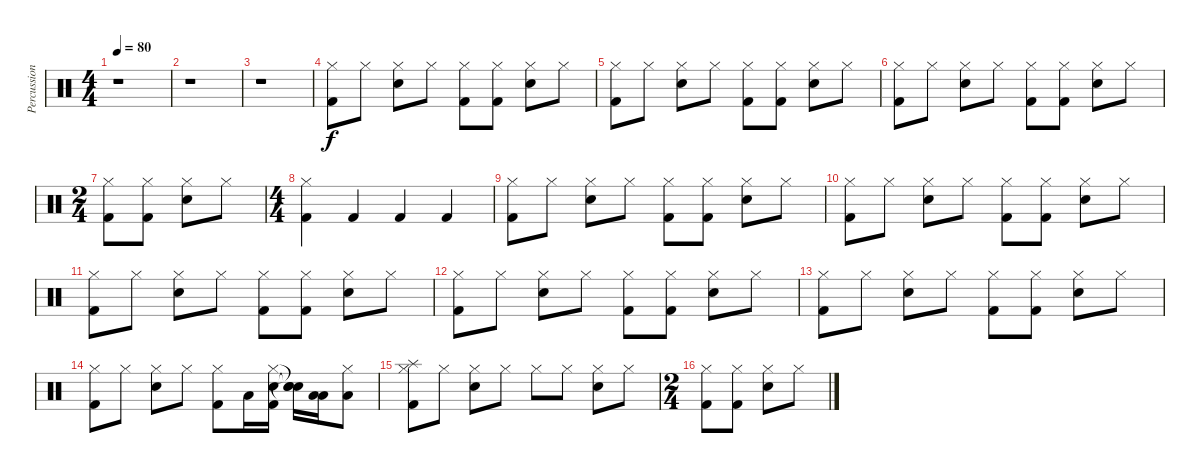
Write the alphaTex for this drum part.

\track ("Percussion" "Percussion") {instrument percussion}
\staff {score}
\articulation defaults
\ts (4 4)
\tempo 80
\clef neutral
\ks c
r.1{dy f} |
r.1 |
r.1 |
("Hi-Hat (closed)" "Kick (hit) 2").8 "Hi-Hat (closed)".8 ("Hi-Hat (closed)" "Snare (hit) 2").8 "Hi-Hat (closed)".8 ("Hi-Hat (closed)" "Kick (hit) 2").8 ("Hi-Hat (closed)" "Kick (hit) 2").8 ("Hi-Hat (closed)" "Snare (hit) 2").8 "Hi-Hat (closed)".8 |
("Hi-Hat (closed)" "Kick (hit) 2").8 "Hi-Hat (closed)".8 ("Hi-Hat (closed)" "Snare (hit) 2").8 "Hi-Hat (closed)".8 ("Hi-Hat (closed)" "Kick (hit) 2").8 ("Hi-Hat (closed)" "Kick (hit) 2").8 ("Hi-Hat (closed)" "Snare (hit) 2").8 "Hi-Hat (closed)".8 |
("Hi-Hat (closed)" "Kick (hit) 2").8 "Hi-Hat (closed)".8 ("Hi-Hat (closed)" "Snare (hit) 2").8 "Hi-Hat (closed)".8 ("Hi-Hat (closed)" "Kick (hit) 2").8 ("Hi-Hat (closed)" "Kick (hit) 2").8 ("Hi-Hat (closed)" "Snare (hit) 2").8 "Hi-Hat (closed)".8 |
\ts (2 4)
("Hi-Hat (closed)" "Kick (hit) 2").8 ("Hi-Hat (closed)" "Kick (hit) 2").8 ("Hi-Hat (closed)" "Snare (hit) 2").8 "Hi-Hat (closed)".8 |
\ts (4 4)
("Hi-Hat (closed)" "Kick (hit) 2").4 "Kick (hit) 2".4 "Kick (hit) 2".4 "Kick (hit) 2".4 |
("Hi-Hat (closed)" "Kick (hit) 2").8 "Hi-Hat (closed)".8 ("Hi-Hat (closed)" "Snare (hit) 2").8 "Hi-Hat (closed)".8 ("Hi-Hat (closed)" "Kick (hit) 2").8 ("Hi-Hat (closed)" "Kick (hit) 2").8 ("Hi-Hat (closed)" "Snare (hit) 2").8 "Hi-Hat (closed)".8 |
("Hi-Hat (closed)" "Kick (hit) 2").8 "Hi-Hat (closed)".8 ("Hi-Hat (closed)" "Snare (hit) 2").8 "Hi-Hat (closed)".8 ("Hi-Hat (closed)" "Kick (hit) 2").8 ("Hi-Hat (closed)" "Kick (hit) 2").8 ("Hi-Hat (closed)" "Snare (hit) 2").8 "Hi-Hat (closed)".8 |
("Hi-Hat (closed)" "Kick (hit) 2").8 "Hi-Hat (closed)".8 ("Hi-Hat (closed)" "Snare (hit) 2").8 "Hi-Hat (closed)".8 ("Hi-Hat (closed)" "Kick (hit) 2").8 ("Hi-Hat (closed)" "Kick (hit) 2").8 ("Hi-Hat (closed)" "Snare (hit) 2").8 "Hi-Hat (closed)".8 |
("Hi-Hat (closed)" "Kick (hit) 2").8 "Hi-Hat (closed)".8 ("Hi-Hat (closed)" "Snare (hit) 2").8 "Hi-Hat (closed)".8 ("Hi-Hat (closed)" "Kick (hit) 2").8 ("Hi-Hat (closed)" "Kick (hit) 2").8 ("Hi-Hat (closed)" "Snare (hit) 2").8 "Hi-Hat (closed)".8 |
("Hi-Hat (closed)" "Kick (hit) 2").8 "Hi-Hat (closed)".8 ("Hi-Hat (closed)" "Snare (hit) 2").8 "Hi-Hat (closed)".8 ("Hi-Hat (closed)" "Kick (hit) 2").8 ("Hi-Hat (closed)" "Kick (hit) 2").8 ("Hi-Hat (closed)" "Snare (hit) 2").8 "Hi-Hat (closed)".8 |
("Hi-Hat (closed)" "Kick (hit) 2").8 "Hi-Hat (closed)".8 ("Hi-Hat (closed)" "Snare (hit) 2").8 "Hi-Hat (closed)".8 ("Hi-Hat (closed)" "Kick (hit) 2").8 "Low Tom (hit)".16 ("Hi-Hat (closed)" "Snare (hit) 2" "Kick (hit) 2").16 ("Snare (hit)"{t} "Snare (hit)"{t} "Snare (hit)"{t}).16 ("Low Tom (hit)" "Low Tom (hit)").16 ("Hi-Hat (closed)" "Low Tom (hit)").8 |
("Hi-Hat (closed)" "Kick (hit) 2" "Splash (hit)").8 "Hi-Hat (closed)".8 ("Hi-Hat (closed)" "Snare (hit) 2").8 "Hi-Hat (closed)".8 "Hi-Hat (closed)".8 "Hi-Hat (closed)".8 ("Hi-Hat (closed)" "Snare (hit) 2").8 "Hi-Hat (closed)".8 |
\ts (2 4)
("Hi-Hat (closed)" "Kick (hit) 2").8 ("Hi-Hat (closed)" "Kick (hit) 2").8 ("Hi-Hat (closed)" "Snare (hit) 2").8 "Hi-Hat (closed)".8
